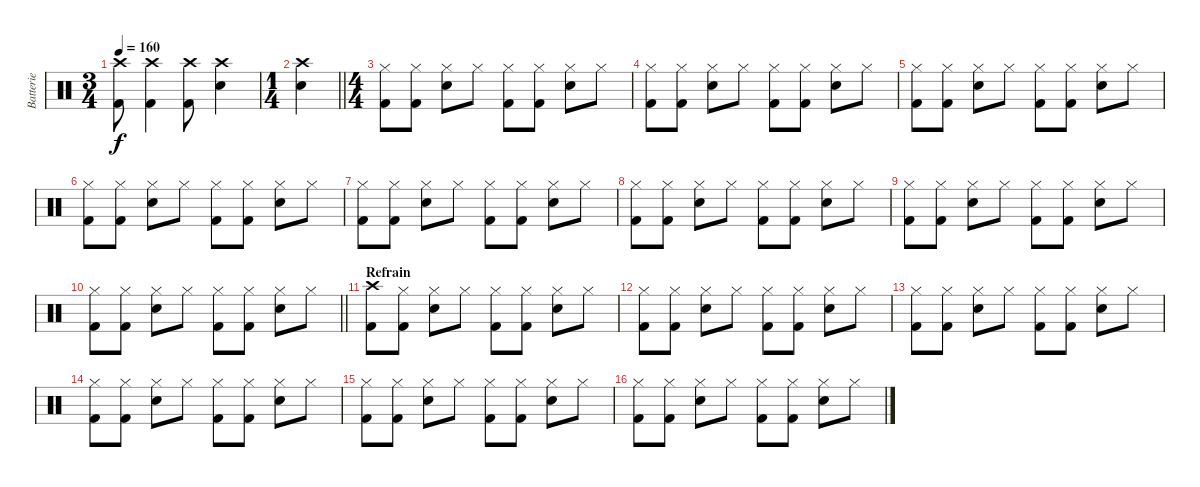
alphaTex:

\track ("Batterie" "Batterie") {instrument percussion}
\staff {score}
\articulation defaults
\ts (3 4)
\tempo 160
\clef neutral
\ks c
("Crash high (hit)" "Kick (hit) 2").8{dy f} ("Crash high (hit)" "Kick (hit) 2").4 ("Crash high (hit)" "Kick (hit) 2").8 ("Crash high (hit)" "Snare (hit) 2").4 |
\ts (1 4)
\barLineRight lightlight
("Crash high (hit)" "Snare (hit) 2").4 |
\ts (4 4)
("Hi-Hat (closed)" "Kick (hit) 2").8 ("Hi-Hat (closed)" "Kick (hit) 2").8 ("Hi-Hat (closed)" "Electric Snare (hit)").8 "Hi-Hat (closed)".8 ("Hi-Hat (closed)" "Kick (hit) 2").8 ("Hi-Hat (closed)" "Kick (hit) 2").8 ("Hi-Hat (closed)" "Electric Snare (hit)").8 "Hi-Hat (closed)".8 |
("Hi-Hat (closed)" "Kick (hit) 2").8 ("Hi-Hat (closed)" "Kick (hit) 2").8 ("Hi-Hat (closed)" "Electric Snare (hit)").8 "Hi-Hat (closed)".8 ("Hi-Hat (closed)" "Kick (hit) 2").8 ("Hi-Hat (closed)" "Kick (hit) 2").8 ("Hi-Hat (closed)" "Electric Snare (hit)").8 "Hi-Hat (closed)".8 |
("Hi-Hat (closed)" "Kick (hit) 2").8 ("Hi-Hat (closed)" "Kick (hit) 2").8 ("Hi-Hat (closed)" "Electric Snare (hit)").8 "Hi-Hat (closed)".8 ("Hi-Hat (closed)" "Kick (hit) 2").8 ("Hi-Hat (closed)" "Kick (hit) 2").8 ("Hi-Hat (closed)" "Electric Snare (hit)").8 "Hi-Hat (closed)".8 |
("Hi-Hat (closed)" "Kick (hit) 2").8 ("Hi-Hat (closed)" "Kick (hit) 2").8 ("Hi-Hat (closed)" "Electric Snare (hit)").8 "Hi-Hat (closed)".8 ("Hi-Hat (closed)" "Kick (hit) 2").8 ("Hi-Hat (closed)" "Kick (hit) 2").8 ("Hi-Hat (closed)" "Electric Snare (hit)").8 "Hi-Hat (closed)".8 |
("Hi-Hat (closed)" "Kick (hit) 2").8 ("Hi-Hat (closed)" "Kick (hit) 2").8 ("Hi-Hat (closed)" "Electric Snare (hit)").8 "Hi-Hat (closed)".8 ("Hi-Hat (closed)" "Kick (hit) 2").8 ("Hi-Hat (closed)" "Kick (hit) 2").8 ("Hi-Hat (closed)" "Electric Snare (hit)").8 "Hi-Hat (closed)".8 |
("Hi-Hat (closed)" "Kick (hit) 2").8 ("Hi-Hat (closed)" "Kick (hit) 2").8 ("Hi-Hat (closed)" "Electric Snare (hit)").8 "Hi-Hat (closed)".8 ("Hi-Hat (closed)" "Kick (hit) 2").8 ("Hi-Hat (closed)" "Kick (hit) 2").8 ("Hi-Hat (closed)" "Electric Snare (hit)").8 "Hi-Hat (closed)".8 |
("Hi-Hat (closed)" "Kick (hit) 2").8 ("Hi-Hat (closed)" "Kick (hit) 2").8 ("Hi-Hat (closed)" "Electric Snare (hit)").8 "Hi-Hat (closed)".8 ("Hi-Hat (closed)" "Kick (hit) 2").8 ("Hi-Hat (closed)" "Kick (hit) 2").8 ("Hi-Hat (closed)" "Electric Snare (hit)").8 "Hi-Hat (closed)".8 |
\barLineRight lightlight
("Hi-Hat (closed)" "Kick (hit) 2").8 ("Hi-Hat (closed)" "Kick (hit) 2").8 ("Hi-Hat (closed)" "Electric Snare (hit)").8 "Hi-Hat (closed)".8 ("Hi-Hat (closed)" "Kick (hit) 2").8 ("Hi-Hat (closed)" "Kick (hit) 2").8 ("Hi-Hat (closed)" "Electric Snare (hit)").8 "Hi-Hat (closed)".8 |
\section ("" "Refrain")
("Crash high (hit)" "Kick (hit) 2").8 ("Hi-Hat (closed)" "Kick (hit) 2").8 ("Hi-Hat (closed)" "Electric Snare (hit)").8 "Hi-Hat (closed)".8 ("Hi-Hat (closed)" "Kick (hit) 2").8 ("Hi-Hat (closed)" "Kick (hit) 2").8 ("Hi-Hat (closed)" "Electric Snare (hit)").8 "Hi-Hat (closed)".8 |
("Hi-Hat (closed)" "Kick (hit) 2").8 ("Hi-Hat (closed)" "Kick (hit) 2").8 ("Hi-Hat (closed)" "Electric Snare (hit)").8 "Hi-Hat (closed)".8 ("Hi-Hat (closed)" "Kick (hit) 2").8 ("Hi-Hat (closed)" "Kick (hit) 2").8 ("Hi-Hat (closed)" "Electric Snare (hit)").8 "Hi-Hat (closed)".8 |
("Hi-Hat (closed)" "Kick (hit) 2").8 ("Hi-Hat (closed)" "Kick (hit) 2").8 ("Hi-Hat (closed)" "Electric Snare (hit)").8 "Hi-Hat (closed)".8 ("Hi-Hat (closed)" "Kick (hit) 2").8 ("Hi-Hat (closed)" "Kick (hit) 2").8 ("Hi-Hat (closed)" "Electric Snare (hit)").8 "Hi-Hat (closed)".8 |
("Hi-Hat (closed)" "Kick (hit) 2").8 ("Hi-Hat (closed)" "Kick (hit) 2").8 ("Hi-Hat (closed)" "Electric Snare (hit)").8 "Hi-Hat (closed)".8 ("Hi-Hat (closed)" "Kick (hit) 2").8 ("Hi-Hat (closed)" "Kick (hit) 2").8 ("Hi-Hat (closed)" "Electric Snare (hit)").8 "Hi-Hat (closed)".8 |
("Hi-Hat (closed)" "Kick (hit) 2").8 ("Hi-Hat (closed)" "Kick (hit) 2").8 ("Hi-Hat (closed)" "Electric Snare (hit)").8 "Hi-Hat (closed)".8 ("Hi-Hat (closed)" "Kick (hit) 2").8 ("Hi-Hat (closed)" "Kick (hit) 2").8 ("Hi-Hat (closed)" "Electric Snare (hit)").8 "Hi-Hat (closed)".8 |
("Hi-Hat (closed)" "Kick (hit) 2").8 ("Hi-Hat (closed)" "Kick (hit) 2").8 ("Hi-Hat (closed)" "Electric Snare (hit)").8 "Hi-Hat (closed)".8 ("Hi-Hat (closed)" "Kick (hit) 2").8 ("Hi-Hat (closed)" "Kick (hit) 2").8 ("Hi-Hat (closed)" "Electric Snare (hit)").8 "Hi-Hat (closed)".8
